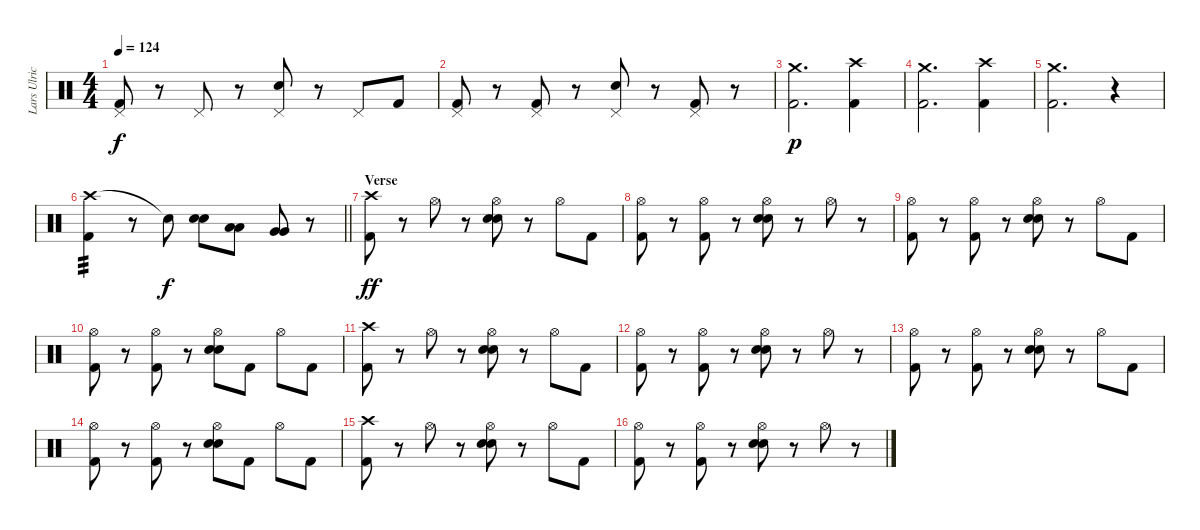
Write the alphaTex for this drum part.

\track ("Lars Ulrich" "Lars Ulric") {instrument percussion}
\staff {score}
\articulation defaults
\ts (4 4)
\tempo 124
\clef neutral
\ks c
("Pedal Hi-Hat (hit)" "Kick (hit) 2").8{dy f} r.8 "Pedal Hi-Hat (hit)".8 r.8 ("Pedal Hi-Hat (hit)" "Electric Snare (hit)").8 r.8 "Pedal Hi-Hat (hit)".8 "Kick (hit) 2".8 |
("Pedal Hi-Hat (hit)" "Kick (hit) 2").8 r.8 ("Pedal Hi-Hat (hit)" "Kick (hit) 2").8 r.8 ("Pedal Hi-Hat (hit)" "Electric Snare (hit)").8 r.8 ("Pedal Hi-Hat (hit)" "Kick (hit) 2").8 r.8 |
("Crash medium (hit)" "Kick (hit) 2").2{d dy p} ("Crash high (hit)" "Kick (hit) 2").4 |
("Crash medium (hit)" "Kick (hit) 2").2{d} ("Crash high (hit)" "Kick (hit) 2").4 |
("Crash medium (hit)" "Kick (hit) 2").2{d} r.4 |
\barLineRight lightlight
("Crash high (hit)" "Kick (hit) 2").4{tp 3} r.8 "Snare (hit)"{t}.8{dy f} ("Electric Snare (hit)" "Electric Snare (hit)").8{bd 60} ("Low Tom (hit)" "Low Tom (hit)").8 ("Very Low Tom (hit)" "Very Low Tom (hit)").8 r.8 |
\section ("" "Verse")
("Crash high (hit)" "Kick (hit) 2").8{dy ff} r.8 "Hi-Hat (open)".8 r.8 ("Hi-Hat (open)" "Electric Snare (hit)" "Electric Snare (hit)").8 r.8 "Hi-Hat (open)".8 "Kick (hit) 2".8 |
("Hi-Hat (open)" "Kick (hit) 2").8 r.8 ("Hi-Hat (open)" "Kick (hit) 2").8 r.8 ("Hi-Hat (open)" "Electric Snare (hit)" "Electric Snare (hit)").8 r.8 "Hi-Hat (open)".8 r.8 |
("Hi-Hat (open)" "Kick (hit) 2").8 r.8 ("Hi-Hat (open)" "Kick (hit) 2").8 r.8 ("Hi-Hat (open)" "Electric Snare (hit)" "Electric Snare (hit)").8 r.8 "Hi-Hat (open)".8 "Kick (hit) 2".8 |
("Hi-Hat (open)" "Kick (hit) 2").8 r.8 ("Hi-Hat (open)" "Kick (hit) 2").8 r.8 ("Hi-Hat (open)" "Electric Snare (hit)" "Electric Snare (hit)").8 "Kick (hit) 2".8 "Hi-Hat (open)".8 "Kick (hit) 2".8 |
("Crash high (hit)" "Kick (hit) 2").8 r.8 "Hi-Hat (open)".8 r.8 ("Hi-Hat (open)" "Electric Snare (hit)" "Electric Snare (hit)").8 r.8 "Hi-Hat (open)".8 "Kick (hit) 2".8 |
("Hi-Hat (open)" "Kick (hit) 2").8 r.8 ("Hi-Hat (open)" "Kick (hit) 2").8 r.8 ("Hi-Hat (open)" "Electric Snare (hit)" "Electric Snare (hit)").8 r.8 "Hi-Hat (open)".8 r.8 |
("Hi-Hat (open)" "Kick (hit) 2").8 r.8 ("Hi-Hat (open)" "Kick (hit) 2").8 r.8 ("Hi-Hat (open)" "Electric Snare (hit)" "Electric Snare (hit)").8 r.8 "Hi-Hat (open)".8 "Kick (hit) 2".8 |
("Hi-Hat (open)" "Kick (hit) 2").8 r.8 ("Hi-Hat (open)" "Kick (hit) 2").8 r.8 ("Hi-Hat (open)" "Electric Snare (hit)" "Electric Snare (hit)").8 "Kick (hit) 2".8 "Hi-Hat (open)".8 "Kick (hit) 2".8 |
("Crash high (hit)" "Kick (hit) 2").8 r.8 "Hi-Hat (open)".8 r.8 ("Hi-Hat (open)" "Electric Snare (hit)" "Electric Snare (hit)").8 r.8 "Hi-Hat (open)".8 "Kick (hit) 2".8 |
("Hi-Hat (open)" "Kick (hit) 2").8 r.8 ("Hi-Hat (open)" "Kick (hit) 2").8 r.8 ("Hi-Hat (open)" "Electric Snare (hit)" "Electric Snare (hit)").8 r.8 "Hi-Hat (open)".8 r.8
